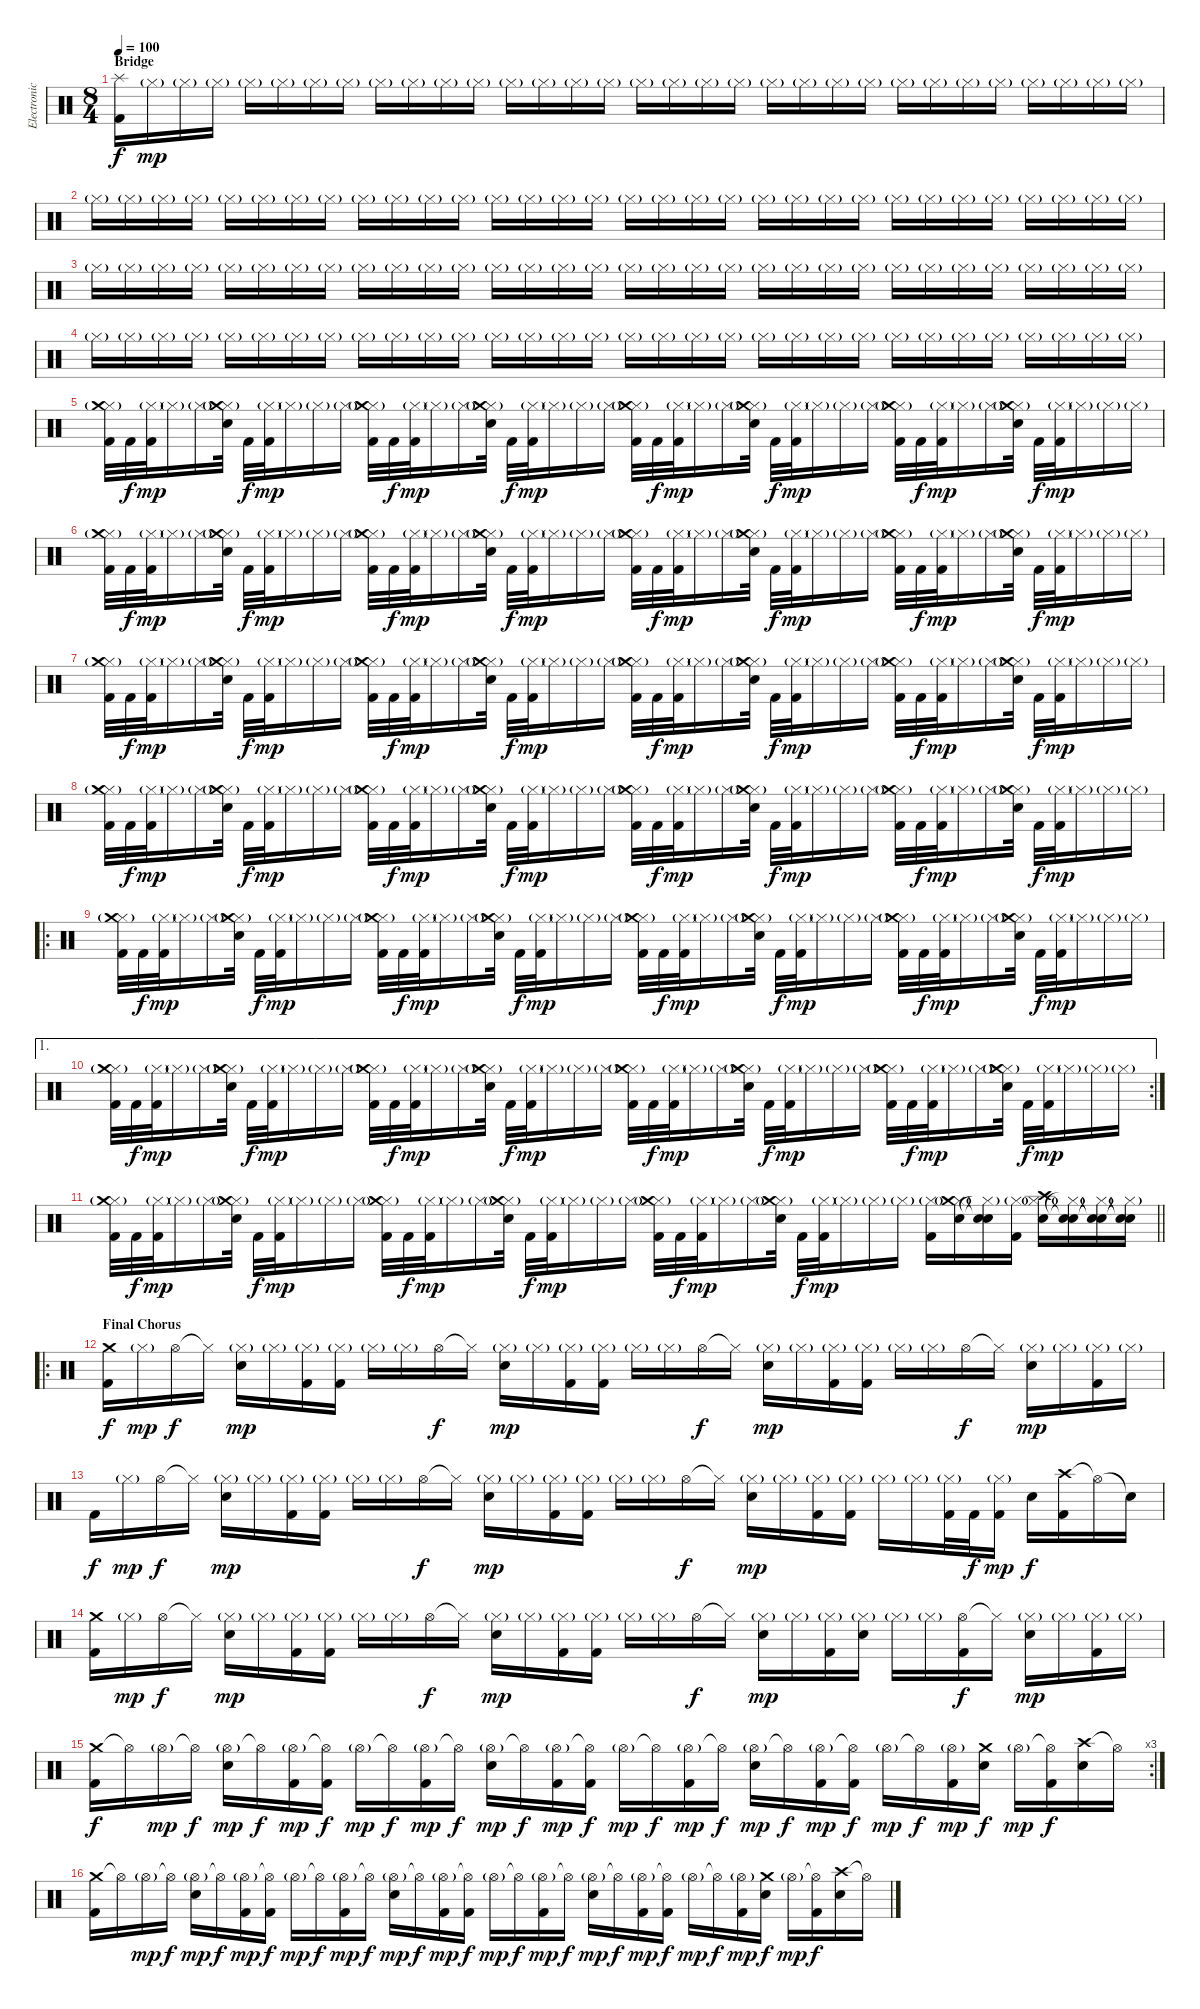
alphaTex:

\track ("Electronic Drums" "Electronic") {instrument percussion}
\staff {score}
\articulation defaults
\ts (8 4)
\section ("" "Bridge")
\tempo 100
\clef neutral
\ks c
("Splash (hit)" "Kick (hit) 2").16{dy f} "Hi-Hat (closed)"{g}.16{dy mp} "Hi-Hat (closed)"{g}.16 "Hi-Hat (closed)"{g}.16 "Hi-Hat (closed)"{g}.16 "Hi-Hat (closed)"{g}.16 "Hi-Hat (closed)"{g}.16 "Hi-Hat (closed)"{g}.16 "Hi-Hat (closed)"{g}.16 "Hi-Hat (closed)"{g}.16 "Hi-Hat (closed)"{g}.16 "Hi-Hat (closed)"{g}.16 "Hi-Hat (closed)"{g}.16 "Hi-Hat (closed)"{g}.16 "Hi-Hat (closed)"{g}.16 "Hi-Hat (closed)"{g}.16 "Hi-Hat (closed)"{g}.16 "Hi-Hat (closed)"{g}.16 "Hi-Hat (closed)"{g}.16 "Hi-Hat (closed)"{g}.16 "Hi-Hat (closed)"{g}.16 "Hi-Hat (closed)"{g}.16 "Hi-Hat (closed)"{g}.16 "Hi-Hat (closed)"{g}.16 "Hi-Hat (closed)"{g}.16 "Hi-Hat (closed)"{g}.16 "Hi-Hat (closed)"{g}.16 "Hi-Hat (closed)"{g}.16 "Hi-Hat (closed)"{g}.16 "Hi-Hat (closed)"{g}.16 "Hi-Hat (closed)"{g}.16 "Hi-Hat (closed)"{g}.16 |
"Hi-Hat (closed)"{g}.16 "Hi-Hat (closed)"{g}.16 "Hi-Hat (closed)"{g}.16 "Hi-Hat (closed)"{g}.16 "Hi-Hat (closed)"{g}.16 "Hi-Hat (closed)"{g}.16 "Hi-Hat (closed)"{g}.16 "Hi-Hat (closed)"{g}.16 "Hi-Hat (closed)"{g}.16 "Hi-Hat (closed)"{g}.16 "Hi-Hat (closed)"{g}.16 "Hi-Hat (closed)"{g}.16 "Hi-Hat (closed)"{g}.16 "Hi-Hat (closed)"{g}.16 "Hi-Hat (closed)"{g}.16 "Hi-Hat (closed)"{g}.16 "Hi-Hat (closed)"{g}.16 "Hi-Hat (closed)"{g}.16 "Hi-Hat (closed)"{g}.16 "Hi-Hat (closed)"{g}.16 "Hi-Hat (closed)"{g}.16 "Hi-Hat (closed)"{g}.16 "Hi-Hat (closed)"{g}.16 "Hi-Hat (closed)"{g}.16 "Hi-Hat (closed)"{g}.16 "Hi-Hat (closed)"{g}.16 "Hi-Hat (closed)"{g}.16 "Hi-Hat (closed)"{g}.16 "Hi-Hat (closed)"{g}.16 "Hi-Hat (closed)"{g}.16 "Hi-Hat (closed)"{g}.16 "Hi-Hat (closed)"{g}.16 |
"Hi-Hat (closed)"{g}.16 "Hi-Hat (closed)"{g}.16 "Hi-Hat (closed)"{g}.16 "Hi-Hat (closed)"{g}.16 "Hi-Hat (closed)"{g}.16 "Hi-Hat (closed)"{g}.16 "Hi-Hat (closed)"{g}.16 "Hi-Hat (closed)"{g}.16 "Hi-Hat (closed)"{g}.16 "Hi-Hat (closed)"{g}.16 "Hi-Hat (closed)"{g}.16 "Hi-Hat (closed)"{g}.16 "Hi-Hat (closed)"{g}.16 "Hi-Hat (closed)"{g}.16 "Hi-Hat (closed)"{g}.16 "Hi-Hat (closed)"{g}.16 "Hi-Hat (closed)"{g}.16 "Hi-Hat (closed)"{g}.16 "Hi-Hat (closed)"{g}.16 "Hi-Hat (closed)"{g}.16 "Hi-Hat (closed)"{g}.16 "Hi-Hat (closed)"{g}.16 "Hi-Hat (closed)"{g}.16 "Hi-Hat (closed)"{g}.16 "Hi-Hat (closed)"{g}.16 "Hi-Hat (closed)"{g}.16 "Hi-Hat (closed)"{g}.16 "Hi-Hat (closed)"{g}.16 "Hi-Hat (closed)"{g}.16 "Hi-Hat (closed)"{g}.16 "Hi-Hat (closed)"{g}.16 "Hi-Hat (closed)"{g}.16 |
"Hi-Hat (closed)"{g}.16 "Hi-Hat (closed)"{g}.16 "Hi-Hat (closed)"{g}.16 "Hi-Hat (closed)"{g}.16 "Hi-Hat (closed)"{g}.16 "Hi-Hat (closed)"{g}.16 "Hi-Hat (closed)"{g}.16 "Hi-Hat (closed)"{g}.16 "Hi-Hat (closed)"{g}.16 "Hi-Hat (closed)"{g}.16 "Hi-Hat (closed)"{g}.16 "Hi-Hat (closed)"{g}.16 "Hi-Hat (closed)"{g}.16 "Hi-Hat (closed)"{g}.16 "Hi-Hat (closed)"{g}.16 "Hi-Hat (closed)"{g}.16 "Hi-Hat (closed)"{g}.16 "Hi-Hat (closed)"{g}.16 "Hi-Hat (closed)"{g}.16 "Hi-Hat (closed)"{g}.16 "Hi-Hat (closed)"{g}.16 "Hi-Hat (closed)"{g}.16 "Hi-Hat (closed)"{g}.16 "Hi-Hat (closed)"{g}.16 "Hi-Hat (closed)"{g}.16 "Hi-Hat (closed)"{g}.16 "Hi-Hat (closed)"{g}.16 "Hi-Hat (closed)"{g}.16 "Hi-Hat (closed)"{g}.16 "Hi-Hat (closed)"{g}.16 "Hi-Hat (closed)"{g}.16 "Hi-Hat (closed)"{g}.16 |
("Hi-Hat (closed)"{g} "Crash medium (hit)" "Kick (hit) 2").32 "Kick (hit) 2".32{dy f} ("Hi-Hat (closed)"{g} "Kick (hit) 2").32{dy mp} "Hi-Hat (closed)"{g}.16 "Hi-Hat (closed)"{g}.16 ("Hi-Hat (closed)"{g} "Crash medium (hit)" "Snare (hit) 2").32 "Kick (hit) 2".32{dy f} ("Hi-Hat (closed)"{g} "Kick (hit) 2").32{dy mp} "Hi-Hat (closed)"{g}.16 "Hi-Hat (closed)"{g}.16 "Hi-Hat (closed)"{g}.16 ("Hi-Hat (closed)"{g} "Crash medium (hit)" "Kick (hit) 2").32 "Kick (hit) 2".32{dy f} ("Hi-Hat (closed)"{g} "Kick (hit) 2").32{dy mp} "Hi-Hat (closed)"{g}.16 "Hi-Hat (closed)"{g}.16 ("Hi-Hat (closed)"{g} "Crash medium (hit)" "Snare (hit) 2").32 "Kick (hit) 2".32{dy f} ("Hi-Hat (closed)"{g} "Kick (hit) 2").32{dy mp} "Hi-Hat (closed)"{g}.16 "Hi-Hat (closed)"{g}.16 "Hi-Hat (closed)"{g}.16 ("Hi-Hat (closed)"{g} "Crash medium (hit)" "Kick (hit) 2").32 "Kick (hit) 2".32{dy f} ("Hi-Hat (closed)"{g} "Kick (hit) 2").32{dy mp} "Hi-Hat (closed)"{g}.16 "Hi-Hat (closed)"{g}.16 ("Hi-Hat (closed)"{g} "Crash medium (hit)" "Snare (hit) 2").32 "Kick (hit) 2".32{dy f} ("Hi-Hat (closed)"{g} "Kick (hit) 2").32{dy mp} "Hi-Hat (closed)"{g}.16 "Hi-Hat (closed)"{g}.16 "Hi-Hat (closed)"{g}.16 ("Hi-Hat (closed)"{g} "Crash medium (hit)" "Kick (hit) 2").32 "Kick (hit) 2".32{dy f} ("Hi-Hat (closed)"{g} "Kick (hit) 2").32{dy mp} "Hi-Hat (closed)"{g}.16 "Hi-Hat (closed)"{g}.16 ("Hi-Hat (closed)"{g} "Crash medium (hit)" "Snare (hit) 2").32 "Kick (hit) 2".32{dy f} ("Hi-Hat (closed)"{g} "Kick (hit) 2").32{dy mp} "Hi-Hat (closed)"{g}.16 "Hi-Hat (closed)"{g}.16 "Hi-Hat (closed)"{g}.16 |
("Hi-Hat (closed)"{g} "Crash medium (hit)" "Kick (hit) 2").32 "Kick (hit) 2".32{dy f} ("Hi-Hat (closed)"{g} "Kick (hit) 2").32{dy mp} "Hi-Hat (closed)"{g}.16 "Hi-Hat (closed)"{g}.16 ("Hi-Hat (closed)"{g} "Crash medium (hit)" "Snare (hit) 2").32 "Kick (hit) 2".32{dy f} ("Hi-Hat (closed)"{g} "Kick (hit) 2").32{dy mp} "Hi-Hat (closed)"{g}.16 "Hi-Hat (closed)"{g}.16 "Hi-Hat (closed)"{g}.16 ("Hi-Hat (closed)"{g} "Crash medium (hit)" "Kick (hit) 2").32 "Kick (hit) 2".32{dy f} ("Hi-Hat (closed)"{g} "Kick (hit) 2").32{dy mp} "Hi-Hat (closed)"{g}.16 "Hi-Hat (closed)"{g}.16 ("Hi-Hat (closed)"{g} "Crash medium (hit)" "Snare (hit) 2").32 "Kick (hit) 2".32{dy f} ("Hi-Hat (closed)"{g} "Kick (hit) 2").32{dy mp} "Hi-Hat (closed)"{g}.16 "Hi-Hat (closed)"{g}.16 "Hi-Hat (closed)"{g}.16 ("Hi-Hat (closed)"{g} "Crash medium (hit)" "Kick (hit) 2").32 "Kick (hit) 2".32{dy f} ("Hi-Hat (closed)"{g} "Kick (hit) 2").32{dy mp} "Hi-Hat (closed)"{g}.16 "Hi-Hat (closed)"{g}.16 ("Hi-Hat (closed)"{g} "Crash medium (hit)" "Snare (hit) 2").32 "Kick (hit) 2".32{dy f} ("Hi-Hat (closed)"{g} "Kick (hit) 2").32{dy mp} "Hi-Hat (closed)"{g}.16 "Hi-Hat (closed)"{g}.16 "Hi-Hat (closed)"{g}.16 ("Hi-Hat (closed)"{g} "Crash medium (hit)" "Kick (hit) 2").32 "Kick (hit) 2".32{dy f} ("Hi-Hat (closed)"{g} "Kick (hit) 2").32{dy mp} "Hi-Hat (closed)"{g}.16 "Hi-Hat (closed)"{g}.16 ("Hi-Hat (closed)"{g} "Crash medium (hit)" "Snare (hit) 2").32 "Kick (hit) 2".32{dy f} ("Hi-Hat (closed)"{g} "Kick (hit) 2").32{dy mp} "Hi-Hat (closed)"{g}.16 "Hi-Hat (closed)"{g}.16 "Hi-Hat (closed)"{g}.16 |
("Hi-Hat (closed)"{g} "Crash medium (hit)" "Kick (hit) 2").32 "Kick (hit) 2".32{dy f} ("Hi-Hat (closed)"{g} "Kick (hit) 2").32{dy mp} "Hi-Hat (closed)"{g}.16 "Hi-Hat (closed)"{g}.16 ("Hi-Hat (closed)"{g} "Crash medium (hit)" "Snare (hit) 2").32 "Kick (hit) 2".32{dy f} ("Hi-Hat (closed)"{g} "Kick (hit) 2").32{dy mp} "Hi-Hat (closed)"{g}.16 "Hi-Hat (closed)"{g}.16 "Hi-Hat (closed)"{g}.16 ("Hi-Hat (closed)"{g} "Crash medium (hit)" "Kick (hit) 2").32 "Kick (hit) 2".32{dy f} ("Hi-Hat (closed)"{g} "Kick (hit) 2").32{dy mp} "Hi-Hat (closed)"{g}.16 "Hi-Hat (closed)"{g}.16 ("Hi-Hat (closed)"{g} "Crash medium (hit)" "Snare (hit) 2").32 "Kick (hit) 2".32{dy f} ("Hi-Hat (closed)"{g} "Kick (hit) 2").32{dy mp} "Hi-Hat (closed)"{g}.16 "Hi-Hat (closed)"{g}.16 "Hi-Hat (closed)"{g}.16 ("Hi-Hat (closed)"{g} "Crash medium (hit)" "Kick (hit) 2").32 "Kick (hit) 2".32{dy f} ("Hi-Hat (closed)"{g} "Kick (hit) 2").32{dy mp} "Hi-Hat (closed)"{g}.16 "Hi-Hat (closed)"{g}.16 ("Hi-Hat (closed)"{g} "Crash medium (hit)" "Snare (hit) 2").32 "Kick (hit) 2".32{dy f} ("Hi-Hat (closed)"{g} "Kick (hit) 2").32{dy mp} "Hi-Hat (closed)"{g}.16 "Hi-Hat (closed)"{g}.16 "Hi-Hat (closed)"{g}.16 ("Hi-Hat (closed)"{g} "Crash medium (hit)" "Kick (hit) 2").32 "Kick (hit) 2".32{dy f} ("Hi-Hat (closed)"{g} "Kick (hit) 2").32{dy mp} "Hi-Hat (closed)"{g}.16 "Hi-Hat (closed)"{g}.16 ("Hi-Hat (closed)"{g} "Crash medium (hit)" "Snare (hit) 2").32 "Kick (hit) 2".32{dy f} ("Hi-Hat (closed)"{g} "Kick (hit) 2").32{dy mp} "Hi-Hat (closed)"{g}.16 "Hi-Hat (closed)"{g}.16 "Hi-Hat (closed)"{g}.16 |
("Hi-Hat (closed)"{g} "Crash medium (hit)" "Kick (hit) 2").32 "Kick (hit) 2".32{dy f} ("Hi-Hat (closed)"{g} "Kick (hit) 2").32{dy mp} "Hi-Hat (closed)"{g}.16 "Hi-Hat (closed)"{g}.16 ("Hi-Hat (closed)"{g} "Crash medium (hit)" "Snare (hit) 2").32 "Kick (hit) 2".32{dy f} ("Hi-Hat (closed)"{g} "Kick (hit) 2").32{dy mp} "Hi-Hat (closed)"{g}.16 "Hi-Hat (closed)"{g}.16 "Hi-Hat (closed)"{g}.16 ("Hi-Hat (closed)"{g} "Crash medium (hit)" "Kick (hit) 2").32 "Kick (hit) 2".32{dy f} ("Hi-Hat (closed)"{g} "Kick (hit) 2").32{dy mp} "Hi-Hat (closed)"{g}.16 "Hi-Hat (closed)"{g}.16 ("Hi-Hat (closed)"{g} "Crash medium (hit)" "Snare (hit) 2").32 "Kick (hit) 2".32{dy f} ("Hi-Hat (closed)"{g} "Kick (hit) 2").32{dy mp} "Hi-Hat (closed)"{g}.16 "Hi-Hat (closed)"{g}.16 "Hi-Hat (closed)"{g}.16 ("Hi-Hat (closed)"{g} "Crash medium (hit)" "Kick (hit) 2").32 "Kick (hit) 2".32{dy f} ("Hi-Hat (closed)"{g} "Kick (hit) 2").32{dy mp} "Hi-Hat (closed)"{g}.16 "Hi-Hat (closed)"{g}.16 ("Hi-Hat (closed)"{g} "Crash medium (hit)" "Snare (hit) 2").32 "Kick (hit) 2".32{dy f} ("Hi-Hat (closed)"{g} "Kick (hit) 2").32{dy mp} "Hi-Hat (closed)"{g}.16 "Hi-Hat (closed)"{g}.16 "Hi-Hat (closed)"{g}.16 ("Hi-Hat (closed)"{g} "Crash medium (hit)" "Kick (hit) 2").32 "Kick (hit) 2".32{dy f} ("Hi-Hat (closed)"{g} "Kick (hit) 2").32{dy mp} "Hi-Hat (closed)"{g}.16 "Hi-Hat (closed)"{g}.16 ("Hi-Hat (closed)"{g} "Crash medium (hit)" "Snare (hit) 2").32 "Kick (hit) 2".32{dy f} ("Hi-Hat (closed)"{g} "Kick (hit) 2").32{dy mp} "Hi-Hat (closed)"{g}.16 "Hi-Hat (closed)"{g}.16 "Hi-Hat (closed)"{g}.16 |
\ro
("Hi-Hat (closed)"{g} "Crash medium (hit)" "Kick (hit) 2").32 "Kick (hit) 2".32{dy f} ("Hi-Hat (closed)"{g} "Kick (hit) 2").32{dy mp} "Hi-Hat (closed)"{g}.16 "Hi-Hat (closed)"{g}.16 ("Hi-Hat (closed)"{g} "Crash medium (hit)" "Snare (hit) 2").32 "Kick (hit) 2".32{dy f} ("Hi-Hat (closed)"{g} "Kick (hit) 2").32{dy mp} "Hi-Hat (closed)"{g}.16 "Hi-Hat (closed)"{g}.16 "Hi-Hat (closed)"{g}.16 ("Hi-Hat (closed)"{g} "Crash medium (hit)" "Kick (hit) 2").32 "Kick (hit) 2".32{dy f} ("Hi-Hat (closed)"{g} "Kick (hit) 2").32{dy mp} "Hi-Hat (closed)"{g}.16 "Hi-Hat (closed)"{g}.16 ("Hi-Hat (closed)"{g} "Crash medium (hit)" "Snare (hit) 2").32 "Kick (hit) 2".32{dy f} ("Hi-Hat (closed)"{g} "Kick (hit) 2").32{dy mp} "Hi-Hat (closed)"{g}.16 "Hi-Hat (closed)"{g}.16 "Hi-Hat (closed)"{g}.16 ("Hi-Hat (closed)"{g} "Crash medium (hit)" "Kick (hit) 2").32 "Kick (hit) 2".32{dy f} ("Hi-Hat (closed)"{g} "Kick (hit) 2").32{dy mp} "Hi-Hat (closed)"{g}.16 "Hi-Hat (closed)"{g}.16 ("Hi-Hat (closed)"{g} "Crash medium (hit)" "Snare (hit) 2").32 "Kick (hit) 2".32{dy f} ("Hi-Hat (closed)"{g} "Kick (hit) 2").32{dy mp} "Hi-Hat (closed)"{g}.16 "Hi-Hat (closed)"{g}.16 "Hi-Hat (closed)"{g}.16 ("Hi-Hat (closed)"{g} "Crash medium (hit)" "Kick (hit) 2").32 "Kick (hit) 2".32{dy f} ("Hi-Hat (closed)"{g} "Kick (hit) 2").32{dy mp} "Hi-Hat (closed)"{g}.16 "Hi-Hat (closed)"{g}.16 ("Hi-Hat (closed)"{g} "Crash medium (hit)" "Snare (hit) 2").32 "Kick (hit) 2".32{dy f} ("Hi-Hat (closed)"{g} "Kick (hit) 2").32{dy mp} "Hi-Hat (closed)"{g}.16 "Hi-Hat (closed)"{g}.16 "Hi-Hat (closed)"{g}.16 |
\ae 1
\rc 2
("Hi-Hat (closed)"{g} "Crash medium (hit)" "Kick (hit) 2").32 "Kick (hit) 2".32{dy f} ("Hi-Hat (closed)"{g} "Kick (hit) 2").32{dy mp} "Hi-Hat (closed)"{g}.16 "Hi-Hat (closed)"{g}.16 ("Hi-Hat (closed)"{g} "Crash medium (hit)" "Snare (hit) 2").32 "Kick (hit) 2".32{dy f} ("Hi-Hat (closed)"{g} "Kick (hit) 2").32{dy mp} "Hi-Hat (closed)"{g}.16 "Hi-Hat (closed)"{g}.16 "Hi-Hat (closed)"{g}.16 ("Hi-Hat (closed)"{g} "Crash medium (hit)" "Kick (hit) 2").32 "Kick (hit) 2".32{dy f} ("Hi-Hat (closed)"{g} "Kick (hit) 2").32{dy mp} "Hi-Hat (closed)"{g}.16 "Hi-Hat (closed)"{g}.16 ("Hi-Hat (closed)"{g} "Crash medium (hit)" "Snare (hit) 2").32 "Kick (hit) 2".32{dy f} ("Hi-Hat (closed)"{g} "Kick (hit) 2").32{dy mp} "Hi-Hat (closed)"{g}.16 "Hi-Hat (closed)"{g}.16 "Hi-Hat (closed)"{g}.16 ("Hi-Hat (closed)"{g} "Crash medium (hit)" "Kick (hit) 2").32 "Kick (hit) 2".32{dy f} ("Hi-Hat (closed)"{g} "Kick (hit) 2").32{dy mp} "Hi-Hat (closed)"{g}.16 "Hi-Hat (closed)"{g}.16 ("Hi-Hat (closed)"{g} "Crash medium (hit)" "Snare (hit) 2").32 "Kick (hit) 2".32{dy f} ("Hi-Hat (closed)"{g} "Kick (hit) 2").32{dy mp} "Hi-Hat (closed)"{g}.16 "Hi-Hat (closed)"{g}.16 "Hi-Hat (closed)"{g}.16 ("Hi-Hat (closed)"{g} "Crash medium (hit)" "Kick (hit) 2").32 "Kick (hit) 2".32{dy f} ("Hi-Hat (closed)"{g} "Kick (hit) 2").32{dy mp} "Hi-Hat (closed)"{g}.16 "Hi-Hat (closed)"{g}.16 ("Hi-Hat (closed)"{g} "Crash medium (hit)" "Snare (hit) 2").32 "Kick (hit) 2".32{dy f} ("Hi-Hat (closed)"{g} "Kick (hit) 2").32{dy mp} "Hi-Hat (closed)"{g}.16 "Hi-Hat (closed)"{g}.16 "Hi-Hat (closed)"{g}.16 |
\barLineRight lightlight
("Hi-Hat (closed)"{g} "Crash medium (hit)" "Kick (hit) 2").32 "Kick (hit) 2".32{dy f} ("Hi-Hat (closed)"{g} "Kick (hit) 2").32{dy mp} "Hi-Hat (closed)"{g}.16 "Hi-Hat (closed)"{g}.16 ("Hi-Hat (closed)"{g} "Crash medium (hit)" "Snare (hit) 2").32 "Kick (hit) 2".32{dy f} ("Hi-Hat (closed)"{g} "Kick (hit) 2").32{dy mp} "Hi-Hat (closed)"{g}.16 "Hi-Hat (closed)"{g}.16 "Hi-Hat (closed)"{g}.16 ("Hi-Hat (closed)"{g} "Crash medium (hit)" "Kick (hit) 2").32 "Kick (hit) 2".32{dy f} ("Hi-Hat (closed)"{g} "Kick (hit) 2").32{dy mp} "Hi-Hat (closed)"{g}.16 "Hi-Hat (closed)"{g}.16 ("Hi-Hat (closed)"{g} "Crash medium (hit)" "Snare (hit) 2").32 "Kick (hit) 2".32{dy f} ("Hi-Hat (closed)"{g} "Kick (hit) 2").32{dy mp} "Hi-Hat (closed)"{g}.16 "Hi-Hat (closed)"{g}.16 "Hi-Hat (closed)"{g}.16 ("Hi-Hat (closed)"{g} "Crash medium (hit)" "Kick (hit) 2").32 "Kick (hit) 2".32{dy f} ("Hi-Hat (closed)"{g} "Kick (hit) 2").32{dy mp} "Hi-Hat (closed)"{g}.16 "Hi-Hat (closed)"{g}.16 ("Hi-Hat (closed)"{g} "Crash medium (hit)" "Snare (hit) 2").32 "Kick (hit) 2".32{dy f} ("Hi-Hat (closed)"{g} "Kick (hit) 2").32{dy mp} "Hi-Hat (closed)"{g}.16 "Hi-Hat (closed)"{g}.16 "Hi-Hat (closed)"{g}.16 ("Hi-Hat (closed)"{g} "Kick (hit) 2").16 ("Hi-Hat (closed)"{g} "Crash medium (hit)" "Snare (hit) 2").16 ("Hi-Hat (closed)"{g} "Snare (hit)"{t} "Snare (hit)"{t}).16 ("Hi-Hat (closed)"{g} "Kick (hit) 2").16 ("Hi-Hat (closed)"{g} "Crash high (hit)" "Snare (hit) 2").16 ("Hi-Hat (closed)"{g} "Snare (hit)"{t} "Snare (hit)"{t}).16 ("Hi-Hat (closed)"{g} "Snare (hit)"{t} "Snare (hit)"{t}).16 ("Hi-Hat (closed)"{g} "Snare (hit)"{t} "Snare (hit)"{t}).16 |
\ro
\section ("" "Final Chorus")
("Crash medium (hit)" "Kick (hit) 2").16{dy f} "Hi-Hat (closed)"{g}.16{dy mp} "Hi-Hat (open)".16{dy f} "Hi-Hat (closed)"{t}.16 ("Hi-Hat (closed)"{g} "Snare (hit) 2").16{dy mp} "Hi-Hat (closed)"{g}.16 ("Hi-Hat (closed)"{g} "Kick (hit) 2").16 ("Hi-Hat (closed)"{g} "Kick (hit) 2").16 "Hi-Hat (closed)"{g}.16 "Hi-Hat (closed)"{g}.16 "Hi-Hat (open)".16{dy f} "Hi-Hat (closed)"{t}.16 ("Hi-Hat (closed)"{g} "Snare (hit) 2").16{dy mp} "Hi-Hat (closed)"{g}.16 ("Hi-Hat (closed)"{g} "Kick (hit) 2").16 ("Hi-Hat (closed)"{g} "Kick (hit) 2").16 "Hi-Hat (closed)"{g}.16 "Hi-Hat (closed)"{g}.16 "Hi-Hat (open)".16{dy f} "Hi-Hat (closed)"{t}.16 ("Hi-Hat (closed)"{g} "Snare (hit) 2").16{dy mp} "Hi-Hat (closed)"{g}.16 ("Hi-Hat (closed)"{g} "Kick (hit) 2").16 ("Hi-Hat (closed)"{g} "Kick (hit) 2").16 "Hi-Hat (closed)"{g}.16 "Hi-Hat (closed)"{g}.16 "Hi-Hat (open)".16{dy f} "Hi-Hat (closed)"{t}.16 ("Hi-Hat (closed)"{g} "Snare (hit) 2").16{dy mp} "Hi-Hat (closed)"{g}.16 ("Hi-Hat (closed)"{g} "Kick (hit) 2").16 "Hi-Hat (closed)"{g}.16 |
"Kick (hit) 2".16{dy f} "Hi-Hat (closed)"{g}.16{dy mp} "Hi-Hat (open)".16{dy f} "Hi-Hat (closed)"{t}.16 ("Hi-Hat (closed)"{g} "Snare (hit) 2").16{dy mp} "Hi-Hat (closed)"{g}.16 ("Hi-Hat (closed)"{g} "Kick (hit) 2").16 ("Hi-Hat (closed)"{g} "Kick (hit) 2").16 "Hi-Hat (closed)"{g}.16 "Hi-Hat (closed)"{g}.16 "Hi-Hat (open)".16{dy f} "Hi-Hat (closed)"{t}.16 ("Hi-Hat (closed)"{g} "Snare (hit) 2").16{dy mp} "Hi-Hat (closed)"{g}.16 ("Hi-Hat (closed)"{g} "Kick (hit) 2").16 ("Hi-Hat (closed)"{g} "Kick (hit) 2").16 "Hi-Hat (closed)"{g}.16 "Hi-Hat (closed)"{g}.16 "Hi-Hat (open)".16{dy f} "Hi-Hat (closed)"{t}.16 ("Hi-Hat (closed)"{g} "Snare (hit) 2").16{dy mp} "Hi-Hat (closed)"{g}.16 ("Hi-Hat (closed)"{g} "Kick (hit) 2").16 ("Hi-Hat (closed)"{g} "Kick (hit) 2").16 "Hi-Hat (closed)"{g}.16 "Hi-Hat (closed)"{g}.16 ("Hi-Hat (closed)"{g} "Kick (hit) 2").32 "Kick (hit) 2".32{dy f} ("Hi-Hat (closed)"{g} "Kick (hit) 2").16{dy mp} "Snare (hit) 2".16{dy f} ("Crash high (hit)" "Kick (hit) 2").16 "Hi-Hat (open)"{t}.16 "Snare (hit)"{t}.16 |
("Crash medium (hit)" "Kick (hit) 2").16 "Hi-Hat (closed)"{g}.16{dy mp} "Hi-Hat (open)".16{dy f} "Hi-Hat (closed)"{t}.16 ("Hi-Hat (closed)"{g} "Snare (hit) 2").16{dy mp} "Hi-Hat (closed)"{g}.16 ("Hi-Hat (closed)"{g} "Kick (hit) 2").16 ("Hi-Hat (closed)"{g} "Kick (hit) 2").16 "Hi-Hat (closed)"{g}.16 "Hi-Hat (closed)"{g}.16 "Hi-Hat (open)".16{dy f} "Hi-Hat (closed)"{t}.16 ("Hi-Hat (closed)"{g} "Snare (hit) 2").16{dy mp} "Hi-Hat (closed)"{g}.16 ("Hi-Hat (closed)"{g} "Kick (hit) 2").16 ("Hi-Hat (closed)"{g} "Kick (hit) 2").16 "Hi-Hat (closed)"{g}.16 "Hi-Hat (closed)"{g}.16 "Hi-Hat (open)".16{dy f} "Hi-Hat (closed)"{t}.16 ("Hi-Hat (closed)"{g} "Snare (hit) 2").16{dy mp} "Hi-Hat (closed)"{g}.16 ("Hi-Hat (closed)"{g} "Kick (hit) 2").16 ("Hi-Hat (closed)"{g} "Snare (hit) 2").16 "Hi-Hat (closed)"{g}.16 "Hi-Hat (closed)"{g}.16 ("Hi-Hat (open)" "Kick (hit) 2").16{dy f} "Hi-Hat (closed)"{t}.16 ("Hi-Hat (closed)"{g} "Snare (hit) 2").16{dy mp} "Hi-Hat (closed)"{g}.16 ("Hi-Hat (closed)"{g} "Kick (hit) 2").16 "Hi-Hat (closed)"{g}.16 |
\rc 3
("Crash medium (hit)" "Kick (hit) 2").16{dy f} "Hi-Hat (open)"{t}.16 "Hi-Hat (open)"{g}.16{dy mp} "Hi-Hat (open)"{t}.16{dy f} ("Hi-Hat (open)"{g} "Snare (hit) 2").16{dy mp} "Hi-Hat (open)"{t}.16{dy f} ("Hi-Hat (open)"{g} "Kick (hit) 2").16{dy mp} ("Hi-Hat (open)"{t} "Kick (hit) 2").16{dy f} "Hi-Hat (open)"{g}.16{dy mp} "Hi-Hat (open)"{t}.16{dy f} ("Hi-Hat (open)"{g} "Kick (hit) 2").16{dy mp} "Hi-Hat (open)"{t}.16{dy f} ("Hi-Hat (open)"{g} "Snare (hit) 2").16{dy mp} "Hi-Hat (open)"{t}.16{dy f} ("Hi-Hat (open)"{g} "Kick (hit) 2").16{dy mp} ("Hi-Hat (open)"{t} "Kick (hit) 2").16{dy f} "Hi-Hat (open)"{g}.16{dy mp} "Hi-Hat (open)"{t}.16{dy f} ("Hi-Hat (open)"{g} "Kick (hit) 2").16{dy mp} "Hi-Hat (open)"{t}.16{dy f} ("Hi-Hat (open)"{g} "Snare (hit) 2").16{dy mp} "Hi-Hat (open)"{t}.16{dy f} ("Hi-Hat (open)"{g} "Kick (hit) 2").16{dy mp} ("Hi-Hat (open)"{t} "Kick (hit) 2").16{dy f} "Hi-Hat (open)"{g}.16{dy mp} "Hi-Hat (open)"{t}.16{dy f} ("Hi-Hat (open)"{g} "Kick (hit) 2").16{dy mp} ("Crash medium (hit)" "Snare (hit) 2").16{dy f} "Hi-Hat (open)"{g}.16{dy mp} ("Hi-Hat (open)"{t} "Kick (hit) 2").16{dy f} ("Crash high (hit)" "Snare (hit) 2").16 "Hi-Hat (open)"{t}.16 |
("Crash medium (hit)" "Kick (hit) 2").16 "Hi-Hat (open)"{t}.16 "Hi-Hat (open)"{g}.16{dy mp} "Hi-Hat (open)"{t}.16{dy f} ("Hi-Hat (open)"{g} "Snare (hit) 2").16{dy mp} "Hi-Hat (open)"{t}.16{dy f} ("Hi-Hat (open)"{g} "Kick (hit) 2").16{dy mp} ("Hi-Hat (open)"{t} "Kick (hit) 2").16{dy f} "Hi-Hat (open)"{g}.16{dy mp} "Hi-Hat (open)"{t}.16{dy f} ("Hi-Hat (open)"{g} "Kick (hit) 2").16{dy mp} "Hi-Hat (open)"{t}.16{dy f} ("Hi-Hat (open)"{g} "Snare (hit) 2").16{dy mp} "Hi-Hat (open)"{t}.16{dy f} ("Hi-Hat (open)"{g} "Kick (hit) 2").16{dy mp} ("Hi-Hat (open)"{t} "Kick (hit) 2").16{dy f} "Hi-Hat (open)"{g}.16{dy mp} "Hi-Hat (open)"{t}.16{dy f} ("Hi-Hat (open)"{g} "Kick (hit) 2").16{dy mp} "Hi-Hat (open)"{t}.16{dy f} ("Hi-Hat (open)"{g} "Snare (hit) 2").16{dy mp} "Hi-Hat (open)"{t}.16{dy f} ("Hi-Hat (open)"{g} "Kick (hit) 2").16{dy mp} ("Hi-Hat (open)"{t} "Kick (hit) 2").16{dy f} "Hi-Hat (open)"{g}.16{dy mp} "Hi-Hat (open)"{t}.16{dy f} ("Hi-Hat (open)"{g} "Kick (hit) 2").16{dy mp} ("Crash medium (hit)" "Snare (hit) 2").16{dy f} "Hi-Hat (open)"{g}.16{dy mp} ("Hi-Hat (open)"{t} "Kick (hit) 2").16{dy f} ("Crash high (hit)" "Snare (hit) 2").16 "Hi-Hat (open)"{t}.16
